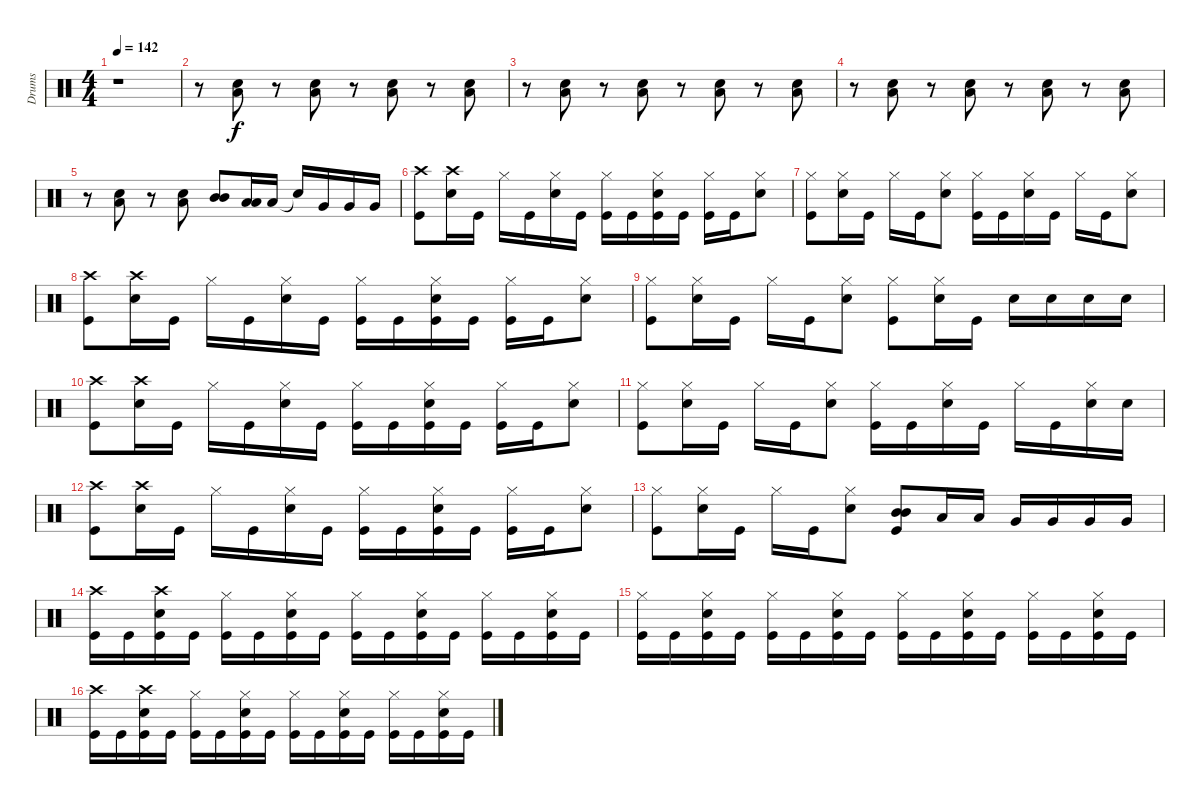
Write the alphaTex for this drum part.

\track ("Drums" "Drums") {instrument percussion}
\staff {score}
\articulation defaults
\ts (4 4)
\tempo 142
\clef neutral
\ks c
r.1{dy f} |
r.8 ("Low Tom (hit)" "Snare (hit) 2").8 r.8 ("Low Tom (hit)" "Snare (hit) 2").8 r.8 ("Low Tom (hit)" "Snare (hit) 2").8 r.8 ("Low Tom (hit)" "Snare (hit) 2").8 |
r.8 ("Low Tom (hit)" "Snare (hit) 2").8 r.8 ("Low Tom (hit)" "Snare (hit) 2").8 r.8 ("Low Tom (hit)" "Snare (hit) 2").8 r.8 ("Low Tom (hit)" "Snare (hit) 2").8 |
r.8 ("Low Tom (hit)" "Snare (hit) 2").8 r.8 ("Low Tom (hit)" "Snare (hit) 2").8 r.8 ("Low Tom (hit)" "Snare (hit) 2").8 r.8 ("Low Tom (hit)" "Snare (hit) 2").8 |
r.8 ("Low Tom (hit)" "Snare (hit) 2").8 r.8 ("Low Tom (hit)" "Snare (hit) 2").8 ("Mid Tom (hit)" "Mid Tom (hit)").8 ("Low Tom (hit)" "Low Tom (hit)").16 "Low Tom (hit)".16 "Snare (hit)"{t}.16 "Very Low Tom (hit)".16 "Very Low Tom (hit)".16 "Very Low Tom (hit)".16 |
("Crash high (hit)" "Kick (hit)").8 ("Crash high (hit)" "Snare (hit) 2").16 "Kick (hit)".16 "Hi-Hat (closed)".16 "Kick (hit)".16 ("Snare (hit) 2" "Hi-Hat (closed)").16 "Kick (hit)".16 ("Kick (hit)" "Hi-Hat (closed)").16 "Kick (hit)".16 ("Kick (hit)" "Snare (hit) 2" "Hi-Hat (closed)").16 "Kick (hit)".16 ("Kick (hit)" "Hi-Hat (closed)").16 "Kick (hit)".16 ("Snare (hit) 2" "Hi-Hat (closed)").8 |
("Hi-Hat (closed)" "Kick (hit)").8 ("Snare (hit) 2" "Hi-Hat (closed)").16 "Kick (hit)".16 "Hi-Hat (closed)".16 "Kick (hit)".16 ("Snare (hit) 2" "Hi-Hat (closed)").8 ("Hi-Hat (closed)" "Kick (hit)").16 "Kick (hit)".16 ("Snare (hit) 2" "Hi-Hat (closed)").16 "Kick (hit)".16 "Hi-Hat (closed)".16 "Kick (hit)".16 ("Hi-Hat (closed)" "Snare (hit) 2").8 |
("Crash high (hit)" "Kick (hit)").8 ("Crash high (hit)" "Snare (hit) 2").16 "Kick (hit)".16 "Hi-Hat (closed)".16 "Kick (hit)".16 ("Snare (hit) 2" "Hi-Hat (closed)").16 "Kick (hit)".16 ("Hi-Hat (closed)" "Kick (hit)").16 "Kick (hit)".16 ("Snare (hit) 2" "Hi-Hat (closed)" "Kick (hit)").16 "Kick (hit)".16 ("Hi-Hat (closed)" "Kick (hit)").16 "Kick (hit)".16 ("Snare (hit) 2" "Hi-Hat (closed)").8 |
("Hi-Hat (closed)" "Kick (hit)").8 ("Snare (hit) 2" "Hi-Hat (closed)").16 "Kick (hit)".16 "Hi-Hat (closed)".16 "Kick (hit)".16 ("Snare (hit) 2" "Hi-Hat (closed)").8 ("Hi-Hat (closed)" "Kick (hit)").8 ("Hi-Hat (closed)" "Snare (hit) 2").16 "Kick (hit)".16 "Snare (hit) 2".16 "Snare (hit) 2".16 "Snare (hit) 2".16 "Snare (hit) 2".16 |
("Crash high (hit)" "Kick (hit)").8 ("Crash high (hit)" "Snare (hit) 2").16 "Kick (hit)".16 "Hi-Hat (closed)".16 "Kick (hit)".16 ("Snare (hit) 2" "Hi-Hat (closed)").16 "Kick (hit)".16 ("Kick (hit)" "Hi-Hat (closed)").16 "Kick (hit)".16 ("Kick (hit)" "Snare (hit) 2" "Hi-Hat (closed)").16 "Kick (hit)".16 ("Kick (hit)" "Hi-Hat (closed)").16 "Kick (hit)".16 ("Snare (hit) 2" "Hi-Hat (closed)").8 |
("Hi-Hat (closed)" "Kick (hit)").8 ("Snare (hit) 2" "Hi-Hat (closed)").16 "Kick (hit)".16 "Hi-Hat (closed)".16 "Kick (hit)".16 ("Snare (hit) 2" "Hi-Hat (closed)").8 ("Hi-Hat (closed)" "Kick (hit)").16 "Kick (hit)".16 ("Snare (hit) 2" "Hi-Hat (closed)").16 "Kick (hit)".16 "Hi-Hat (closed)".16 "Kick (hit)".16 ("Hi-Hat (closed)" "Snare (hit) 2").16 "Snare (hit) 2".16 |
("Crash high (hit)" "Kick (hit)").8 ("Crash high (hit)" "Snare (hit) 2").16 "Kick (hit)".16 "Hi-Hat (closed)".16 "Kick (hit)".16 ("Snare (hit) 2" "Hi-Hat (closed)").16 "Kick (hit)".16 ("Hi-Hat (closed)" "Kick (hit)").16 "Kick (hit)".16 ("Snare (hit) 2" "Hi-Hat (closed)" "Kick (hit)").16 "Kick (hit)".16 ("Hi-Hat (closed)" "Kick (hit)").16 "Kick (hit)".16 ("Snare (hit) 2" "Hi-Hat (closed)").8 |
("Hi-Hat (closed)" "Kick (hit)").8 ("Snare (hit) 2" "Hi-Hat (closed)").16 "Kick (hit)".16 "Hi-Hat (closed)".16 "Kick (hit)".16 ("Snare (hit) 2" "Hi-Hat (closed)").8 ("Mid Tom (hit)" "Kick (hit)" "Mid Tom (hit)").8 "Low Tom (hit)".16 "Low Tom (hit)".16 "Very Low Tom (hit)".16 "Very Low Tom (hit)".16 "Very Low Tom (hit)".16 "Very Low Tom (hit)".16 |
("Crash high (hit)" "Kick (hit)").16 "Kick (hit)".16 ("Kick (hit)" "Crash high (hit)" "Snare (hit) 2").16 "Kick (hit)".16 ("Kick (hit)" "Hi-Hat (closed)").16 "Kick (hit)".16 ("Kick (hit)" "Snare (hit) 2" "Hi-Hat (closed)").16 "Kick (hit)".16 ("Kick (hit)" "Hi-Hat (closed)").16 "Kick (hit)".16 ("Kick (hit)" "Snare (hit) 2" "Hi-Hat (closed)").16 "Kick (hit)".16 ("Kick (hit)" "Hi-Hat (closed)").16 "Kick (hit)".16 ("Kick (hit)" "Snare (hit) 2" "Hi-Hat (closed)").16 "Kick (hit)".16 |
("Hi-Hat (closed)" "Kick (hit)").16 "Kick (hit)".16 ("Kick (hit)" "Snare (hit) 2" "Hi-Hat (closed)").16 "Kick (hit)".16 ("Kick (hit)" "Hi-Hat (closed)").16 "Kick (hit)".16 ("Kick (hit)" "Snare (hit) 2" "Hi-Hat (closed)").16 "Kick (hit)".16 ("Hi-Hat (closed)" "Kick (hit)").16 "Kick (hit)".16 ("Kick (hit)" "Snare (hit) 2" "Hi-Hat (closed)").16 "Kick (hit)".16 ("Kick (hit)" "Hi-Hat (closed)").16 "Kick (hit)".16 ("Kick (hit)" "Hi-Hat (closed)" "Snare (hit) 2").16 "Kick (hit)".16 |
("Crash high (hit)" "Kick (hit)").16 "Kick (hit)".16 ("Kick (hit)" "Crash high (hit)" "Snare (hit) 2").16 "Kick (hit)".16 ("Kick (hit)" "Hi-Hat (closed)").16 "Kick (hit)".16 ("Kick (hit)" "Snare (hit) 2" "Hi-Hat (closed)").16 "Kick (hit)".16 ("Hi-Hat (closed)" "Kick (hit)").16 "Kick (hit)".16 ("Snare (hit) 2" "Hi-Hat (closed)" "Kick (hit)").16 "Kick (hit)".16 ("Hi-Hat (closed)" "Kick (hit)").16 "Kick (hit)".16 ("Kick (hit)" "Snare (hit) 2" "Hi-Hat (closed)").16 "Kick (hit)".16
